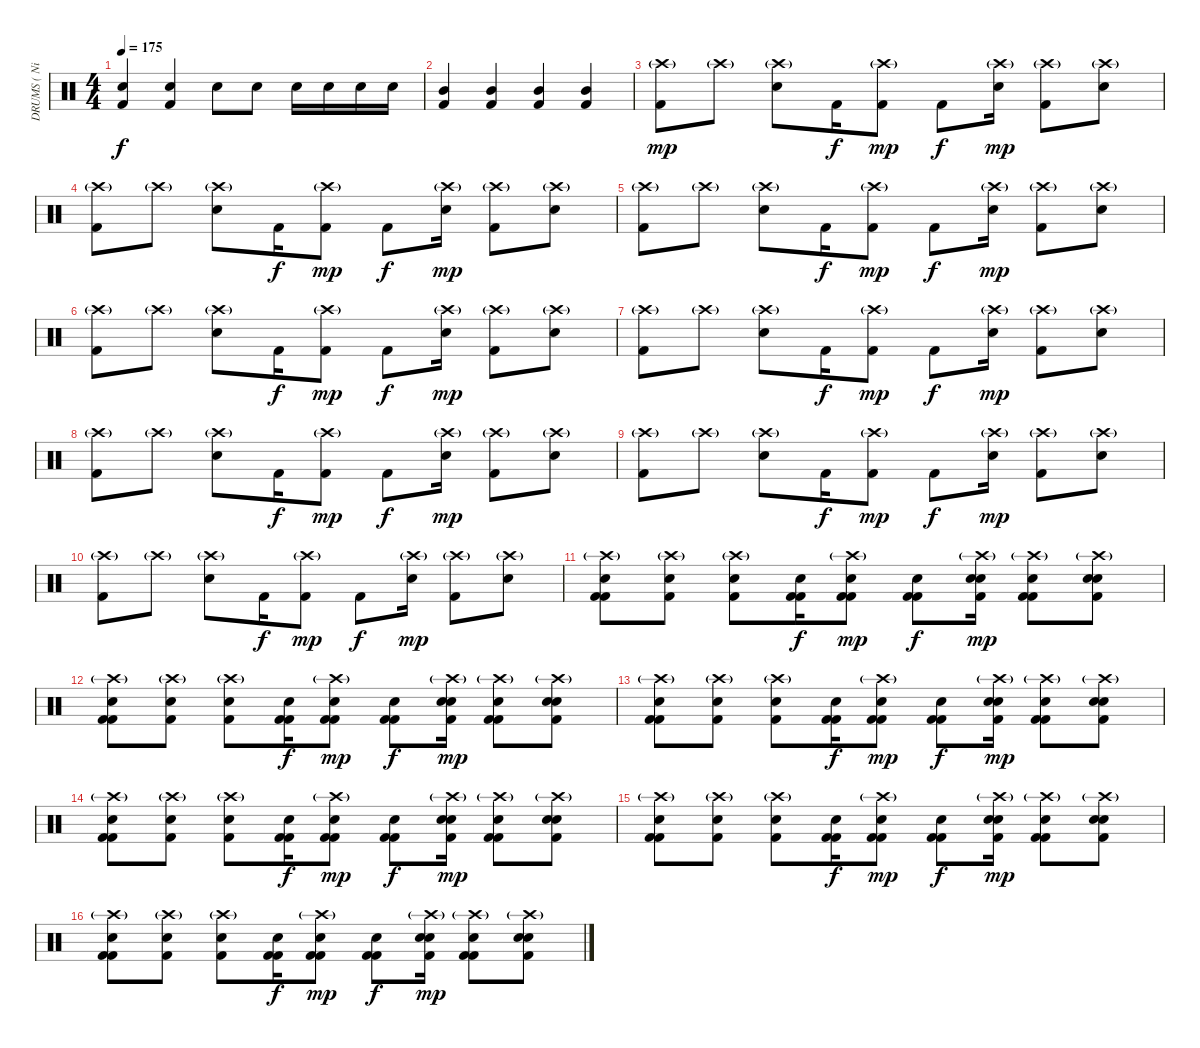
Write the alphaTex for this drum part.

\track ("DRUMS ( Nick Oshiro )" "DRUMS ( Ni") {instrument percussion}
\staff {score}
\articulation defaults
\ts (4 4)
\tempo 175
\clef neutral
\ks c
("Electric Snare (hit)" "Kick (hit) 2").4{dy f} ("Electric Snare (hit)" "Kick (hit) 2").4 "Electric Snare (hit)".8 "Electric Snare (hit)".8 "Electric Snare (hit)".16 "Electric Snare (hit)".16 "Electric Snare (hit)".16 "Electric Snare (hit)".16 |
("Kick (hit) 2" "Mid Tom (hit)").4 ("Kick (hit) 2" "Mid Tom (hit)").4 ("Kick (hit) 2" "Mid Tom (hit)").4 ("Kick (hit) 2" "Mid Tom (hit)").4 |
("Kick (hit) 2" "Crash high (hit)"{g}).8{dy mp} "Crash high (hit)"{g}.8 ("Electric Snare (hit)" "Crash high (hit)"{g}).8 "Kick (hit) 2".16{dy f} ("Kick (hit) 2" "Crash high (hit)"{g}).8{dy mp} "Kick (hit) 2".8{dy f} ("Electric Snare (hit)" "Crash high (hit)"{g}).16{dy mp} ("Kick (hit) 2" "Crash high (hit)"{g}).8 ("Electric Snare (hit)" "Crash high (hit)"{g}).8 |
("Kick (hit) 2" "Crash high (hit)"{g}).8 "Crash high (hit)"{g}.8 ("Electric Snare (hit)" "Crash high (hit)"{g}).8 "Kick (hit) 2".16{dy f} ("Kick (hit) 2" "Crash high (hit)"{g}).8{dy mp} "Kick (hit) 2".8{dy f} ("Electric Snare (hit)" "Crash high (hit)"{g}).16{dy mp} ("Kick (hit) 2" "Crash high (hit)"{g}).8 ("Electric Snare (hit)" "Crash high (hit)"{g}).8 |
("Kick (hit) 2" "Crash high (hit)"{g}).8 "Crash high (hit)"{g}.8 ("Electric Snare (hit)" "Crash high (hit)"{g}).8 "Kick (hit) 2".16{dy f} ("Kick (hit) 2" "Crash high (hit)"{g}).8{dy mp} "Kick (hit) 2".8{dy f} ("Electric Snare (hit)" "Crash high (hit)"{g}).16{dy mp} ("Kick (hit) 2" "Crash high (hit)"{g}).8 ("Electric Snare (hit)" "Crash high (hit)"{g}).8 |
("Kick (hit) 2" "Crash high (hit)"{g}).8 "Crash high (hit)"{g}.8 ("Electric Snare (hit)" "Crash high (hit)"{g}).8 "Kick (hit) 2".16{dy f} ("Kick (hit) 2" "Crash high (hit)"{g}).8{dy mp} "Kick (hit) 2".8{dy f} ("Electric Snare (hit)" "Crash high (hit)"{g}).16{dy mp} ("Kick (hit) 2" "Crash high (hit)"{g}).8 ("Electric Snare (hit)" "Crash high (hit)"{g}).8 |
("Kick (hit) 2" "Crash high (hit)"{g}).8 "Crash high (hit)"{g}.8 ("Electric Snare (hit)" "Crash high (hit)"{g}).8 "Kick (hit) 2".16{dy f} ("Kick (hit) 2" "Crash high (hit)"{g}).8{dy mp} "Kick (hit) 2".8{dy f} ("Electric Snare (hit)" "Crash high (hit)"{g}).16{dy mp} ("Kick (hit) 2" "Crash high (hit)"{g}).8 ("Electric Snare (hit)" "Crash high (hit)"{g}).8 |
("Kick (hit) 2" "Crash high (hit)"{g}).8 "Crash high (hit)"{g}.8 ("Electric Snare (hit)" "Crash high (hit)"{g}).8 "Kick (hit) 2".16{dy f} ("Kick (hit) 2" "Crash high (hit)"{g}).8{dy mp} "Kick (hit) 2".8{dy f} ("Electric Snare (hit)" "Crash high (hit)"{g}).16{dy mp} ("Kick (hit) 2" "Crash high (hit)"{g}).8 ("Electric Snare (hit)" "Crash high (hit)"{g}).8 |
("Kick (hit) 2" "Crash high (hit)"{g}).8 "Crash high (hit)"{g}.8 ("Electric Snare (hit)" "Crash high (hit)"{g}).8 "Kick (hit) 2".16{dy f} ("Kick (hit) 2" "Crash high (hit)"{g}).8{dy mp} "Kick (hit) 2".8{dy f} ("Electric Snare (hit)" "Crash high (hit)"{g}).16{dy mp} ("Kick (hit) 2" "Crash high (hit)"{g}).8 ("Electric Snare (hit)" "Crash high (hit)"{g}).8 |
("Kick (hit) 2" "Crash high (hit)"{g}).8 "Crash high (hit)"{g}.8 ("Electric Snare (hit)" "Crash high (hit)"{g}).8 "Kick (hit) 2".16{dy f} ("Kick (hit) 2" "Crash high (hit)"{g}).8{dy mp} "Kick (hit) 2".8{dy f} ("Electric Snare (hit)" "Crash high (hit)"{g}).16{dy mp} ("Kick (hit) 2" "Crash high (hit)"{g}).8 ("Electric Snare (hit)" "Crash high (hit)"{g}).8 |
("Kick (hit) 2" "Electric Snare (hit)" "Kick (hit) 2" "Crash high (hit)"{g}).8 ("Kick (hit) 2" "Electric Snare (hit)" "Crash high (hit)"{g}).8 ("Kick (hit) 2" "Electric Snare (hit)" "Crash high (hit)"{g}).8 ("Kick (hit) 2" "Electric Snare (hit)" "Kick (hit) 2").16{dy f} ("Kick (hit) 2" "Electric Snare (hit)" "Kick (hit) 2" "Crash high (hit)"{g}).8{dy mp} ("Kick (hit) 2" "Electric Snare (hit)" "Kick (hit) 2").8{dy f} ("Kick (hit) 2" "Electric Snare (hit)" "Electric Snare (hit)" "Crash high (hit)"{g}).16{dy mp} ("Kick (hit) 2" "Electric Snare (hit)" "Kick (hit) 2" "Crash high (hit)"{g}).8 ("Kick (hit) 2" "Electric Snare (hit)" "Electric Snare (hit)" "Crash high (hit)"{g}).8 |
("Kick (hit) 2" "Electric Snare (hit)" "Kick (hit) 2" "Crash high (hit)"{g}).8 ("Kick (hit) 2" "Electric Snare (hit)" "Crash high (hit)"{g}).8 ("Kick (hit) 2" "Electric Snare (hit)" "Crash high (hit)"{g}).8 ("Kick (hit) 2" "Electric Snare (hit)" "Kick (hit) 2").16{dy f} ("Kick (hit) 2" "Electric Snare (hit)" "Kick (hit) 2" "Crash high (hit)"{g}).8{dy mp} ("Kick (hit) 2" "Electric Snare (hit)" "Kick (hit) 2").8{dy f} ("Kick (hit) 2" "Electric Snare (hit)" "Electric Snare (hit)" "Crash high (hit)"{g}).16{dy mp} ("Kick (hit) 2" "Electric Snare (hit)" "Kick (hit) 2" "Crash high (hit)"{g}).8 ("Kick (hit) 2" "Electric Snare (hit)" "Electric Snare (hit)" "Crash high (hit)"{g}).8 |
("Kick (hit) 2" "Electric Snare (hit)" "Kick (hit) 2" "Crash high (hit)"{g}).8 ("Kick (hit) 2" "Electric Snare (hit)" "Crash high (hit)"{g}).8 ("Kick (hit) 2" "Electric Snare (hit)" "Crash high (hit)"{g}).8 ("Kick (hit) 2" "Electric Snare (hit)" "Kick (hit) 2").16{dy f} ("Kick (hit) 2" "Electric Snare (hit)" "Kick (hit) 2" "Crash high (hit)"{g}).8{dy mp} ("Kick (hit) 2" "Electric Snare (hit)" "Kick (hit) 2").8{dy f} ("Kick (hit) 2" "Electric Snare (hit)" "Electric Snare (hit)" "Crash high (hit)"{g}).16{dy mp} ("Kick (hit) 2" "Electric Snare (hit)" "Kick (hit) 2" "Crash high (hit)"{g}).8 ("Kick (hit) 2" "Electric Snare (hit)" "Electric Snare (hit)" "Crash high (hit)"{g}).8 |
("Kick (hit) 2" "Electric Snare (hit)" "Kick (hit) 2" "Crash high (hit)"{g}).8 ("Kick (hit) 2" "Electric Snare (hit)" "Crash high (hit)"{g}).8 ("Kick (hit) 2" "Electric Snare (hit)" "Crash high (hit)"{g}).8 ("Kick (hit) 2" "Electric Snare (hit)" "Kick (hit) 2").16{dy f} ("Kick (hit) 2" "Electric Snare (hit)" "Kick (hit) 2" "Crash high (hit)"{g}).8{dy mp} ("Kick (hit) 2" "Electric Snare (hit)" "Kick (hit) 2").8{dy f} ("Kick (hit) 2" "Electric Snare (hit)" "Electric Snare (hit)" "Crash high (hit)"{g}).16{dy mp} ("Kick (hit) 2" "Electric Snare (hit)" "Kick (hit) 2" "Crash high (hit)"{g}).8 ("Kick (hit) 2" "Electric Snare (hit)" "Electric Snare (hit)" "Crash high (hit)"{g}).8 |
("Kick (hit) 2" "Electric Snare (hit)" "Kick (hit) 2" "Crash high (hit)"{g}).8 ("Kick (hit) 2" "Electric Snare (hit)" "Crash high (hit)"{g}).8 ("Kick (hit) 2" "Electric Snare (hit)" "Crash high (hit)"{g}).8 ("Kick (hit) 2" "Electric Snare (hit)" "Kick (hit) 2").16{dy f} ("Kick (hit) 2" "Electric Snare (hit)" "Kick (hit) 2" "Crash high (hit)"{g}).8{dy mp} ("Kick (hit) 2" "Electric Snare (hit)" "Kick (hit) 2").8{dy f} ("Kick (hit) 2" "Electric Snare (hit)" "Electric Snare (hit)" "Crash high (hit)"{g}).16{dy mp} ("Kick (hit) 2" "Electric Snare (hit)" "Kick (hit) 2" "Crash high (hit)"{g}).8 ("Kick (hit) 2" "Electric Snare (hit)" "Electric Snare (hit)" "Crash high (hit)"{g}).8 |
("Kick (hit) 2" "Electric Snare (hit)" "Kick (hit) 2" "Crash high (hit)"{g}).8 ("Kick (hit) 2" "Electric Snare (hit)" "Crash high (hit)"{g}).8 ("Kick (hit) 2" "Electric Snare (hit)" "Crash high (hit)"{g}).8 ("Kick (hit) 2" "Electric Snare (hit)" "Kick (hit) 2").16{dy f} ("Kick (hit) 2" "Electric Snare (hit)" "Kick (hit) 2" "Crash high (hit)"{g}).8{dy mp} ("Kick (hit) 2" "Electric Snare (hit)" "Kick (hit) 2").8{dy f} ("Kick (hit) 2" "Electric Snare (hit)" "Electric Snare (hit)" "Crash high (hit)"{g}).16{dy mp} ("Kick (hit) 2" "Electric Snare (hit)" "Kick (hit) 2" "Crash high (hit)"{g}).8 ("Kick (hit) 2" "Electric Snare (hit)" "Electric Snare (hit)" "Crash high (hit)"{g}).8
